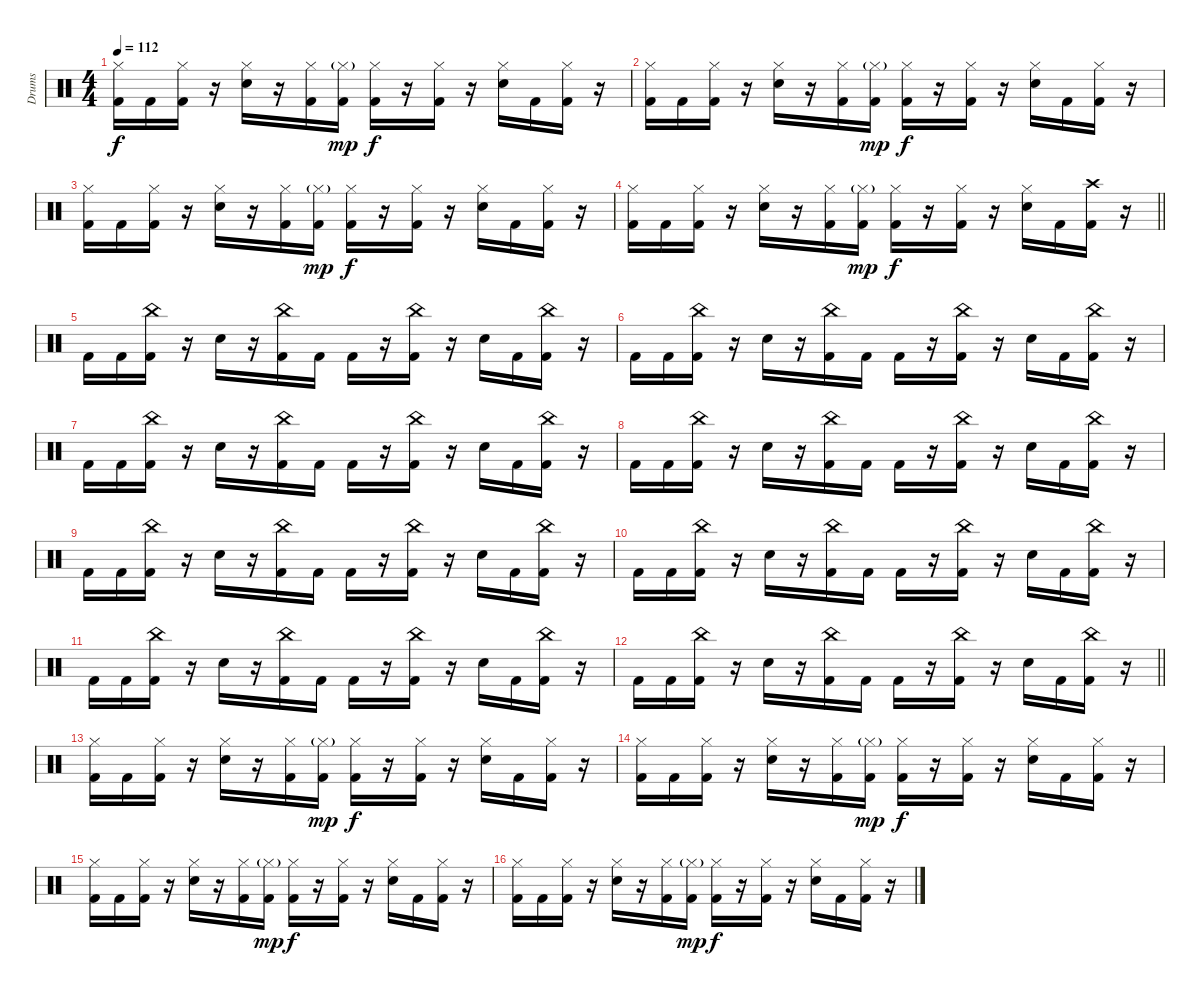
\track ("Drums" "Drums") {instrument percussion}
\staff {score}
\articulation defaults
\ts (4 4)
\tempo 112
\clef neutral
\ks c
("Hi-Hat (closed)" "Kick (hit) 2").16{dy f} "Kick (hit) 2".16 ("Hi-Hat (closed)" "Kick (hit) 2").16 r.16 ("Hi-Hat (closed)" "Electric Snare (hit)").16 r.16 ("Hi-Hat (closed)" "Kick (hit) 2").16 ("Hi-Hat (closed)"{g} "Kick (hit) 2").16{dy mp} ("Hi-Hat (closed)" "Kick (hit) 2").16{dy f} r.16 ("Hi-Hat (closed)" "Kick (hit) 2").16 r.16 ("Hi-Hat (closed)" "Electric Snare (hit)").16 "Kick (hit) 2".16 ("Hi-Hat (closed)" "Kick (hit) 2").16 r.16 |
("Hi-Hat (closed)" "Kick (hit) 2").16 "Kick (hit) 2".16 ("Hi-Hat (closed)" "Kick (hit) 2").16 r.16 ("Hi-Hat (closed)" "Electric Snare (hit)").16 r.16 ("Hi-Hat (closed)" "Kick (hit) 2").16 ("Hi-Hat (closed)"{g} "Kick (hit) 2").16{dy mp} ("Hi-Hat (closed)" "Kick (hit) 2").16{dy f} r.16 ("Hi-Hat (closed)" "Kick (hit) 2").16 r.16 ("Hi-Hat (closed)" "Electric Snare (hit)").16 "Kick (hit) 2".16 ("Hi-Hat (closed)" "Kick (hit) 2").16 r.16 |
("Hi-Hat (closed)" "Kick (hit) 2").16 "Kick (hit) 2".16 ("Hi-Hat (closed)" "Kick (hit) 2").16 r.16 ("Hi-Hat (closed)" "Electric Snare (hit)").16 r.16 ("Hi-Hat (closed)" "Kick (hit) 2").16 ("Hi-Hat (closed)"{g} "Kick (hit) 2").16{dy mp} ("Hi-Hat (closed)" "Kick (hit) 2").16{dy f} r.16 ("Hi-Hat (closed)" "Kick (hit) 2").16 r.16 ("Hi-Hat (closed)" "Electric Snare (hit)").16 "Kick (hit) 2".16 ("Hi-Hat (closed)" "Kick (hit) 2").16 r.16 |
\barLineRight lightlight
("Hi-Hat (closed)" "Kick (hit) 2").16 "Kick (hit) 2".16 ("Hi-Hat (closed)" "Kick (hit) 2").16 r.16 ("Hi-Hat (closed)" "Electric Snare (hit)").16 r.16 ("Hi-Hat (closed)" "Kick (hit) 2").16 ("Hi-Hat (closed)"{g} "Kick (hit) 2").16{dy mp} ("Hi-Hat (closed)" "Kick (hit) 2").16{dy f} r.16 ("Hi-Hat (closed)" "Kick (hit) 2").16 r.16 ("Hi-Hat (closed)" "Electric Snare (hit)").16 "Kick (hit) 2".16 ("Crash high (hit)" "Kick (hit) 2").16 r.16 |
"Kick (hit) 2".16 "Kick (hit) 2".16 ("China (hit)" "Kick (hit) 2").16 r.16 "Electric Snare (hit)".16 r.16 ("China (hit)" "Kick (hit) 2").16 "Kick (hit) 2".16 "Kick (hit) 2".16 r.16 ("China (hit)" "Kick (hit) 2").16 r.16 "Electric Snare (hit)".16 "Kick (hit) 2".16 ("China (hit)" "Kick (hit) 2").16 r.16 |
"Kick (hit) 2".16 "Kick (hit) 2".16 ("China (hit)" "Kick (hit) 2").16 r.16 "Electric Snare (hit)".16 r.16 ("China (hit)" "Kick (hit) 2").16 "Kick (hit) 2".16 "Kick (hit) 2".16 r.16 ("China (hit)" "Kick (hit) 2").16 r.16 "Electric Snare (hit)".16 "Kick (hit) 2".16 ("China (hit)" "Kick (hit) 2").16 r.16 |
"Kick (hit) 2".16 "Kick (hit) 2".16 ("China (hit)" "Kick (hit) 2").16 r.16 "Electric Snare (hit)".16 r.16 ("China (hit)" "Kick (hit) 2").16 "Kick (hit) 2".16 "Kick (hit) 2".16 r.16 ("China (hit)" "Kick (hit) 2").16 r.16 "Electric Snare (hit)".16 "Kick (hit) 2".16 ("China (hit)" "Kick (hit) 2").16 r.16 |
"Kick (hit) 2".16 "Kick (hit) 2".16 ("China (hit)" "Kick (hit) 2").16 r.16 "Electric Snare (hit)".16 r.16 ("China (hit)" "Kick (hit) 2").16 "Kick (hit) 2".16 "Kick (hit) 2".16 r.16 ("China (hit)" "Kick (hit) 2").16 r.16 "Electric Snare (hit)".16 "Kick (hit) 2".16 ("China (hit)" "Kick (hit) 2").16 r.16 |
"Kick (hit) 2".16 "Kick (hit) 2".16 ("China (hit)" "Kick (hit) 2").16 r.16 "Electric Snare (hit)".16 r.16 ("China (hit)" "Kick (hit) 2").16 "Kick (hit) 2".16 "Kick (hit) 2".16 r.16 ("China (hit)" "Kick (hit) 2").16 r.16 "Electric Snare (hit)".16 "Kick (hit) 2".16 ("China (hit)" "Kick (hit) 2").16 r.16 |
"Kick (hit) 2".16 "Kick (hit) 2".16 ("China (hit)" "Kick (hit) 2").16 r.16 "Electric Snare (hit)".16 r.16 ("China (hit)" "Kick (hit) 2").16 "Kick (hit) 2".16 "Kick (hit) 2".16 r.16 ("China (hit)" "Kick (hit) 2").16 r.16 "Electric Snare (hit)".16 "Kick (hit) 2".16 ("China (hit)" "Kick (hit) 2").16 r.16 |
"Kick (hit) 2".16 "Kick (hit) 2".16 ("China (hit)" "Kick (hit) 2").16 r.16 "Electric Snare (hit)".16 r.16 ("China (hit)" "Kick (hit) 2").16 "Kick (hit) 2".16 "Kick (hit) 2".16 r.16 ("China (hit)" "Kick (hit) 2").16 r.16 "Electric Snare (hit)".16 "Kick (hit) 2".16 ("China (hit)" "Kick (hit) 2").16 r.16 |
\barLineRight lightlight "Kick (hit) 2".16 "Kick (hit) 2".16
("China (hit)" "Kick (hit) 2").16 r.16 "Electric Snare (hit)".16 r.16 ("China (hit)" "Kick (hit) 2").16 "Kick (hit) 2".16 "Kick (hit) 2".16 r.16 ("China (hit)" "Kick (hit) 2").16 r.16 "Electric Snare (hit)".16 "Kick (hit) 2".16 ("China (hit)" "Kick (hit) 2").16 r.16 |
("Hi-Hat (closed)" "Kick (hit) 2").16 "Kick (hit) 2".16 ("Hi-Hat (closed)" "Kick (hit) 2").16 r.16 ("Hi-Hat (closed)" "Electric Snare (hit)").16 r.16 ("Hi-Hat (closed)" "Kick (hit) 2").16 ("Hi-Hat (closed)"{g} "Kick (hit) 2").16{dy mp} ("Hi-Hat (closed)" "Kick (hit) 2").16{dy f} r.16 ("Hi-Hat (closed)" "Kick (hit) 2").16 r.16 ("Hi-Hat (closed)" "Electric Snare (hit)").16 "Kick (hit) 2".16 ("Hi-Hat (closed)" "Kick (hit) 2").16 r.16 |
("Hi-Hat (closed)" "Kick (hit) 2").16 "Kick (hit) 2".16 ("Hi-Hat (closed)" "Kick (hit) 2").16 r.16 ("Hi-Hat (closed)" "Electric Snare (hit)").16 r.16 ("Hi-Hat (closed)" "Kick (hit) 2").16 ("Hi-Hat (closed)"{g} "Kick (hit) 2").16{dy mp} ("Hi-Hat (closed)" "Kick (hit) 2").16{dy f} r.16 ("Hi-Hat (closed)" "Kick (hit) 2").16 r.16 ("Hi-Hat (closed)" "Electric Snare (hit)").16 "Kick (hit) 2".16 ("Hi-Hat (closed)" "Kick (hit) 2").16 r.16 |
("Hi-Hat (closed)" "Kick (hit) 2").16 "Kick (hit) 2".16 ("Hi-Hat (closed)" "Kick (hit) 2").16 r.16 ("Hi-Hat (closed)" "Electric Snare (hit)").16 r.16 ("Hi-Hat (closed)" "Kick (hit) 2").16 ("Hi-Hat (closed)"{g} "Kick (hit) 2").16{dy mp} ("Hi-Hat (closed)" "Kick (hit) 2").16{dy f} r.16 ("Hi-Hat (closed)" "Kick (hit) 2").16 r.16 ("Hi-Hat (closed)" "Electric Snare (hit)").16 "Kick (hit) 2".16 ("Hi-Hat (closed)" "Kick (hit) 2").16 r.16 |
("Hi-Hat (closed)" "Kick (hit) 2").16 "Kick (hit) 2".16 ("Hi-Hat (closed)" "Kick (hit) 2").16 r.16 ("Hi-Hat (closed)" "Electric Snare (hit)").16 r.16 ("Hi-Hat (closed)" "Kick (hit) 2").16 ("Hi-Hat (closed)"{g} "Kick (hit) 2").16{dy mp} ("Hi-Hat (closed)" "Kick (hit) 2").16{dy f} r.16 ("Hi-Hat (closed)" "Kick (hit) 2").16 r.16 ("Hi-Hat (closed)" "Electric Snare (hit)").16 "Kick (hit) 2".16 ("Hi-Hat (closed)" "Kick (hit) 2").16 r.16
